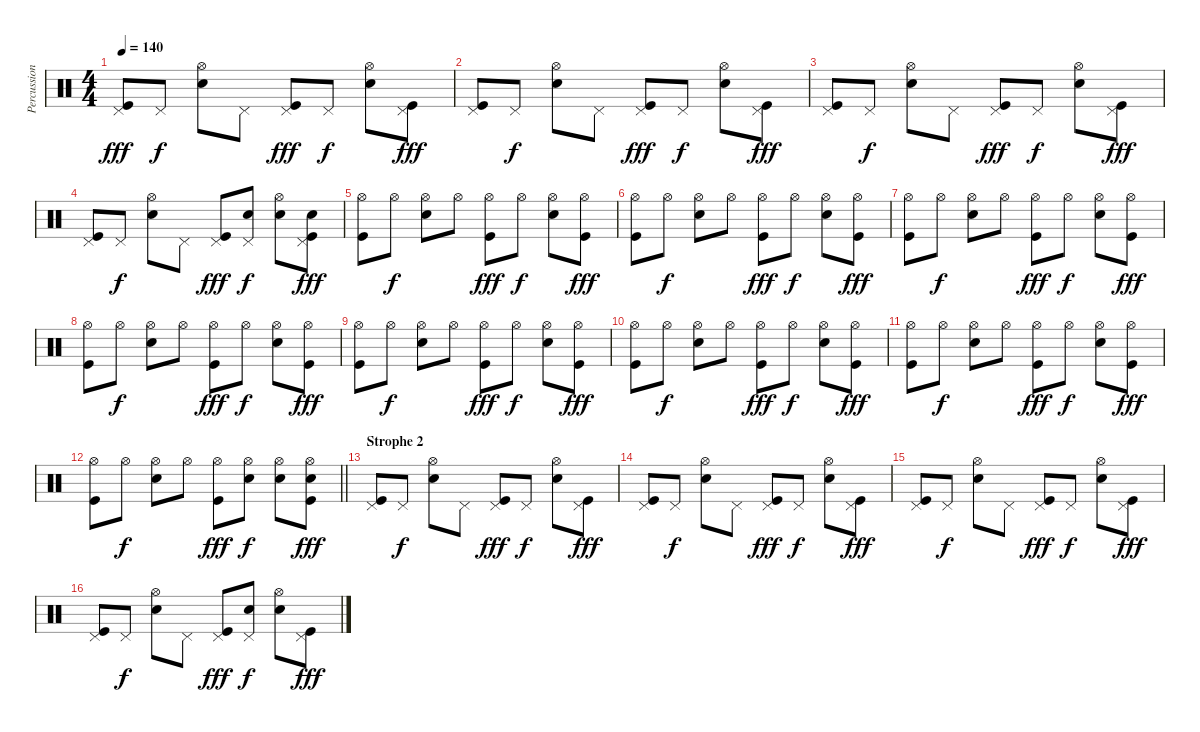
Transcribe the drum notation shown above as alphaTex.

\track ("Percussion" "Percussion") {instrument percussion}
\staff {score}
\articulation defaults
\ts (4 4)
\tempo 140
\clef neutral
\ks c
("Kick (hit)" "Pedal Hi-Hat (hit)").8{dy fff} "Pedal Hi-Hat (hit)".8{dy f} ("Metronome (bell)" "Hi-Hat (open)").8 "Pedal Hi-Hat (hit)".8 ("Kick (hit)" "Pedal Hi-Hat (hit)").8{dy fff} "Pedal Hi-Hat (hit)".8{dy f} ("Metronome (bell)" "Hi-Hat (open)").8 ("Kick (hit)" "Pedal Hi-Hat (hit)").8{dy fff} |
("Kick (hit)" "Pedal Hi-Hat (hit)").8 "Pedal Hi-Hat (hit)".8{dy f} ("Metronome (bell)" "Hi-Hat (open)").8 "Pedal Hi-Hat (hit)".8 ("Kick (hit)" "Pedal Hi-Hat (hit)").8{dy fff} "Pedal Hi-Hat (hit)".8{dy f} ("Metronome (bell)" "Hi-Hat (open)").8 ("Kick (hit)" "Pedal Hi-Hat (hit)").8{dy fff} |
("Kick (hit)" "Pedal Hi-Hat (hit)").8 "Pedal Hi-Hat (hit)".8{dy f} ("Metronome (bell)" "Hi-Hat (open)").8 "Pedal Hi-Hat (hit)".8 ("Kick (hit)" "Pedal Hi-Hat (hit)").8{dy fff} "Pedal Hi-Hat (hit)".8{dy f} ("Metronome (bell)" "Hi-Hat (open)").8 ("Kick (hit)" "Pedal Hi-Hat (hit)").8{dy fff} |
("Kick (hit)" "Pedal Hi-Hat (hit)").8 "Pedal Hi-Hat (hit)".8{dy f} ("Metronome (bell)" "Hi-Hat (open)").8 "Pedal Hi-Hat (hit)".8 ("Kick (hit)" "Pedal Hi-Hat (hit)").8{dy fff} ("Metronome (bell)" "Pedal Hi-Hat (hit)").8{dy f} ("Metronome (bell)" "Hi-Hat (open)").8 ("Kick (hit)" "Metronome (bell)" "Pedal Hi-Hat (hit)").8{dy fff} |
("Kick (hit)" "Hi-Hat (open)").8 "Hi-Hat (open)".8{dy f} ("Metronome (bell)" "Hi-Hat (open)").8 "Hi-Hat (open)".8 ("Kick (hit)" "Hi-Hat (open)").8{dy fff} "Hi-Hat (open)".8{dy f} ("Metronome (bell)" "Hi-Hat (open)").8 ("Kick (hit)" "Hi-Hat (open)").8{dy fff} |
("Kick (hit)" "Hi-Hat (open)").8 "Hi-Hat (open)".8{dy f} ("Metronome (bell)" "Hi-Hat (open)").8 "Hi-Hat (open)".8 ("Kick (hit)" "Hi-Hat (open)").8{dy fff} "Hi-Hat (open)".8{dy f} ("Metronome (bell)" "Hi-Hat (open)").8 ("Kick (hit)" "Hi-Hat (open)").8{dy fff} |
("Kick (hit)" "Hi-Hat (open)").8 "Hi-Hat (open)".8{dy f} ("Metronome (bell)" "Hi-Hat (open)").8 "Hi-Hat (open)".8 ("Kick (hit)" "Hi-Hat (open)").8{dy fff} "Hi-Hat (open)".8{dy f} ("Metronome (bell)" "Hi-Hat (open)").8 ("Kick (hit)" "Hi-Hat (open)").8{dy fff} |
("Kick (hit)" "Hi-Hat (open)").8 "Hi-Hat (open)".8{dy f} ("Metronome (bell)" "Hi-Hat (open)").8 "Hi-Hat (open)".8 ("Kick (hit)" "Hi-Hat (open)").8{dy fff} "Hi-Hat (open)".8{dy f} ("Metronome (bell)" "Hi-Hat (open)").8 ("Kick (hit)" "Hi-Hat (open)").8{dy fff} |
("Kick (hit)" "Hi-Hat (open)").8 "Hi-Hat (open)".8{dy f} ("Metronome (bell)" "Hi-Hat (open)").8 "Hi-Hat (open)".8 ("Kick (hit)" "Hi-Hat (open)").8{dy fff} "Hi-Hat (open)".8{dy f} ("Metronome (bell)" "Hi-Hat (open)").8 ("Kick (hit)" "Hi-Hat (open)").8{dy fff} |
("Kick (hit)" "Hi-Hat (open)").8 "Hi-Hat (open)".8{dy f} ("Metronome (bell)" "Hi-Hat (open)").8 "Hi-Hat (open)".8 ("Kick (hit)" "Hi-Hat (open)").8{dy fff} "Hi-Hat (open)".8{dy f} ("Metronome (bell)" "Hi-Hat (open)").8 ("Kick (hit)" "Hi-Hat (open)").8{dy fff} |
("Kick (hit)" "Hi-Hat (open)").8 "Hi-Hat (open)".8{dy f} ("Metronome (bell)" "Hi-Hat (open)").8 "Hi-Hat (open)".8 ("Kick (hit)" "Hi-Hat (open)").8{dy fff} "Hi-Hat (open)".8{dy f} ("Metronome (bell)" "Hi-Hat (open)").8 ("Kick (hit)" "Hi-Hat (open)").8{dy fff} |
\barLineRight lightlight
("Kick (hit)" "Hi-Hat (open)").8 "Hi-Hat (open)".8{dy f} ("Metronome (bell)" "Hi-Hat (open)").8 "Hi-Hat (open)".8 ("Kick (hit)" "Hi-Hat (open)").8{dy fff} ("Metronome (bell)" "Hi-Hat (open)").8{dy f} ("Metronome (bell)" "Hi-Hat (open)").8 ("Kick (hit)" "Metronome (bell)" "Hi-Hat (open)").8{dy fff} |
\section ("" "Strophe 2")
("Kick (hit)" "Pedal Hi-Hat (hit)").8 "Pedal Hi-Hat (hit)".8{dy f} ("Metronome (bell)" "Hi-Hat (open)").8 "Pedal Hi-Hat (hit)".8 ("Kick (hit)" "Pedal Hi-Hat (hit)").8{dy fff} "Pedal Hi-Hat (hit)".8{dy f} ("Metronome (bell)" "Hi-Hat (open)").8 ("Kick (hit)" "Pedal Hi-Hat (hit)").8{dy fff} |
("Kick (hit)" "Pedal Hi-Hat (hit)").8 "Pedal Hi-Hat (hit)".8{dy f} ("Metronome (bell)" "Hi-Hat (open)").8 "Pedal Hi-Hat (hit)".8 ("Kick (hit)" "Pedal Hi-Hat (hit)").8{dy fff} "Pedal Hi-Hat (hit)".8{dy f} ("Metronome (bell)" "Hi-Hat (open)").8 ("Kick (hit)" "Pedal Hi-Hat (hit)").8{dy fff} |
("Kick (hit)" "Pedal Hi-Hat (hit)").8 "Pedal Hi-Hat (hit)".8{dy f} ("Metronome (bell)" "Hi-Hat (open)").8 "Pedal Hi-Hat (hit)".8 ("Kick (hit)" "Pedal Hi-Hat (hit)").8{dy fff} "Pedal Hi-Hat (hit)".8{dy f} ("Metronome (bell)" "Hi-Hat (open)").8 ("Kick (hit)" "Pedal Hi-Hat (hit)").8{dy fff} |
("Kick (hit)" "Pedal Hi-Hat (hit)").8 "Pedal Hi-Hat (hit)".8{dy f} ("Metronome (bell)" "Hi-Hat (open)").8 "Pedal Hi-Hat (hit)".8 ("Kick (hit)" "Pedal Hi-Hat (hit)").8{dy fff} ("Metronome (bell)" "Pedal Hi-Hat (hit)").8{dy f} ("Metronome (bell)" "Hi-Hat (open)").8 ("Kick (hit)" "Pedal Hi-Hat (hit)").8{dy fff}
